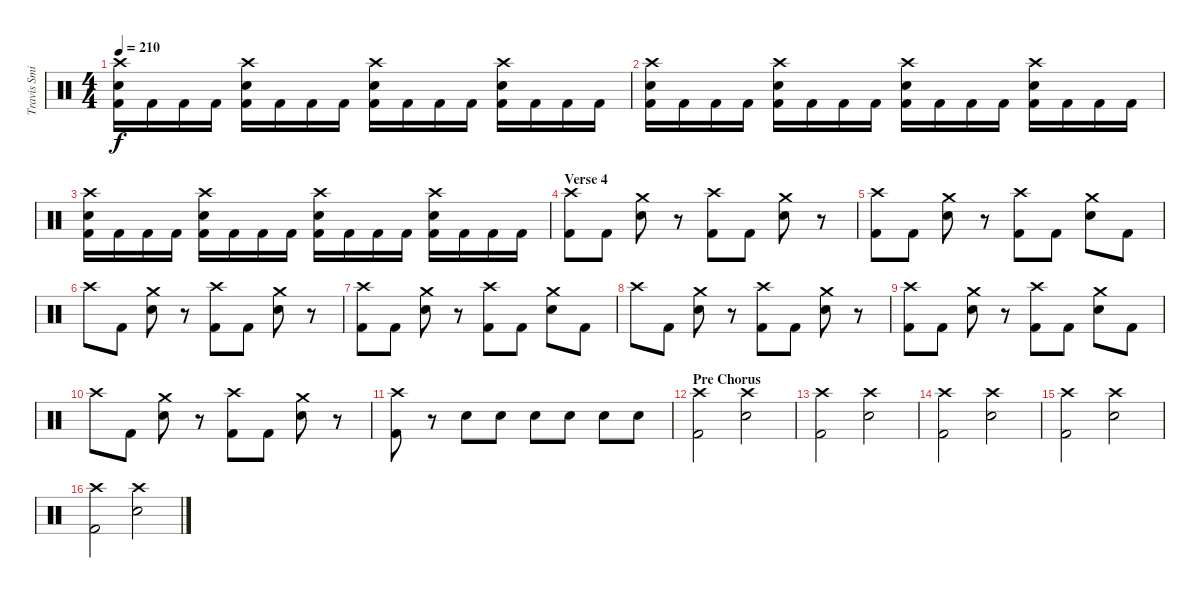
\track ("Travis Smith" "Travis Smi") {instrument percussion}
\staff {score}
\articulation defaults
\ts (4 4)
\tempo 210
\clef neutral
\ks c
("Crash high (hit)" "Electric Snare (hit)" "Kick (hit) 2").16{dy f} "Kick (hit) 2".16 "Kick (hit) 2".16 "Kick (hit) 2".16 ("Crash high (hit)" "Electric Snare (hit)" "Kick (hit) 2").16 "Kick (hit) 2".16 "Kick (hit) 2".16 "Kick (hit) 2".16 ("Crash high (hit)" "Electric Snare (hit)" "Kick (hit) 2").16 "Kick (hit) 2".16 "Kick (hit) 2".16 "Kick (hit) 2".16 ("Crash high (hit)" "Electric Snare (hit)" "Kick (hit) 2").16 "Kick (hit) 2".16 "Kick (hit) 2".16 "Kick (hit) 2".16 |
("Crash high (hit)" "Electric Snare (hit)" "Kick (hit) 2").16 "Kick (hit) 2".16 "Kick (hit) 2".16 "Kick (hit) 2".16 ("Crash high (hit)" "Electric Snare (hit)" "Kick (hit) 2").16 "Kick (hit) 2".16 "Kick (hit) 2".16 "Kick (hit) 2".16 ("Crash high (hit)" "Electric Snare (hit)" "Kick (hit) 2").16 "Kick (hit) 2".16 "Kick (hit) 2".16 "Kick (hit) 2".16 ("Crash high (hit)" "Electric Snare (hit)" "Kick (hit) 2").16 "Kick (hit) 2".16 "Kick (hit) 2".16 "Kick (hit) 2".16 |
("Crash high (hit)" "Electric Snare (hit)" "Kick (hit) 2").16 "Kick (hit) 2".16 "Kick (hit) 2".16 "Kick (hit) 2".16 ("Crash high (hit)" "Electric Snare (hit)" "Kick (hit) 2").16 "Kick (hit) 2".16 "Kick (hit) 2".16 "Kick (hit) 2".16 ("Crash high (hit)" "Electric Snare (hit)" "Kick (hit) 2").16 "Kick (hit) 2".16 "Kick (hit) 2".16 "Kick (hit) 2".16 ("Crash high (hit)" "Electric Snare (hit)" "Kick (hit) 2").16 "Kick (hit) 2".16 "Kick (hit) 2".16 "Kick (hit) 2".16 |
\section ("" "Verse 4")
("Crash high (hit)" "Kick (hit) 2").8 "Kick (hit) 2".8 ("Crash medium (hit)" "Electric Snare (hit)").8 r.8 ("Crash high (hit)" "Kick (hit) 2").8 "Kick (hit) 2".8 ("Crash medium (hit)" "Electric Snare (hit)").8 r.8 |
("Crash high (hit)" "Kick (hit) 2").8 "Kick (hit) 2".8 ("Crash medium (hit)" "Electric Snare (hit)").8 r.8 ("Crash high (hit)" "Kick (hit) 2").8 "Kick (hit) 2".8 ("Crash medium (hit)" "Electric Snare (hit)").8 "Kick (hit) 2".8 |
"Crash high (hit)".8 "Kick (hit) 2".8 ("Crash medium (hit)" "Electric Snare (hit)").8 r.8 ("Crash high (hit)" "Kick (hit) 2").8 "Kick (hit) 2".8 ("Crash medium (hit)" "Electric Snare (hit)").8 r.8 |
("Crash high (hit)" "Kick (hit) 2").8 "Kick (hit) 2".8 ("Crash medium (hit)" "Electric Snare (hit)").8 r.8 ("Crash high (hit)" "Kick (hit) 2").8 "Kick (hit) 2".8 ("Crash medium (hit)" "Electric Snare (hit)").8 "Kick (hit) 2".8 |
"Crash high (hit)".8 "Kick (hit) 2".8 ("Crash medium (hit)" "Electric Snare (hit)").8 r.8 ("Crash high (hit)" "Kick (hit) 2").8 "Kick (hit) 2".8 ("Crash medium (hit)" "Electric Snare (hit)").8 r.8 |
("Crash high (hit)" "Kick (hit) 2").8 "Kick (hit) 2".8 ("Crash medium (hit)" "Electric Snare (hit)").8 r.8 ("Crash high (hit)" "Kick (hit) 2").8 "Kick (hit) 2".8 ("Crash medium (hit)" "Electric Snare (hit)").8 "Kick (hit) 2".8 |
"Crash high (hit)".8 "Kick (hit) 2".8 ("Crash medium (hit)" "Electric Snare (hit)").8 r.8 ("Crash high (hit)" "Kick (hit) 2").8 "Kick (hit) 2".8 ("Crash medium (hit)" "Electric Snare (hit)").8 r.8 |
("Crash high (hit)" "Kick (hit) 2").8 r.8 "Electric Snare (hit)".8 "Electric Snare (hit)".8 "Electric Snare (hit)".8 "Electric Snare (hit)".8 "Electric Snare (hit)".8 "Electric Snare (hit)".8 |
\section ("" "Pre Chorus")
("Crash high (hit)" "Kick (hit) 2").2 ("Crash high (hit)" "Electric Snare (hit)").2 |
("Crash high (hit)" "Kick (hit) 2").2 ("Crash high (hit)" "Electric Snare (hit)").2 |
("Crash high (hit)" "Kick (hit) 2").2 ("Crash high (hit)" "Electric Snare (hit)").2 |
("Crash high (hit)" "Kick (hit) 2").2 ("Crash high (hit)" "Electric Snare (hit)").2 |
("Crash high (hit)" "Kick (hit) 2").2 ("Crash high (hit)" "Electric Snare (hit)").2
